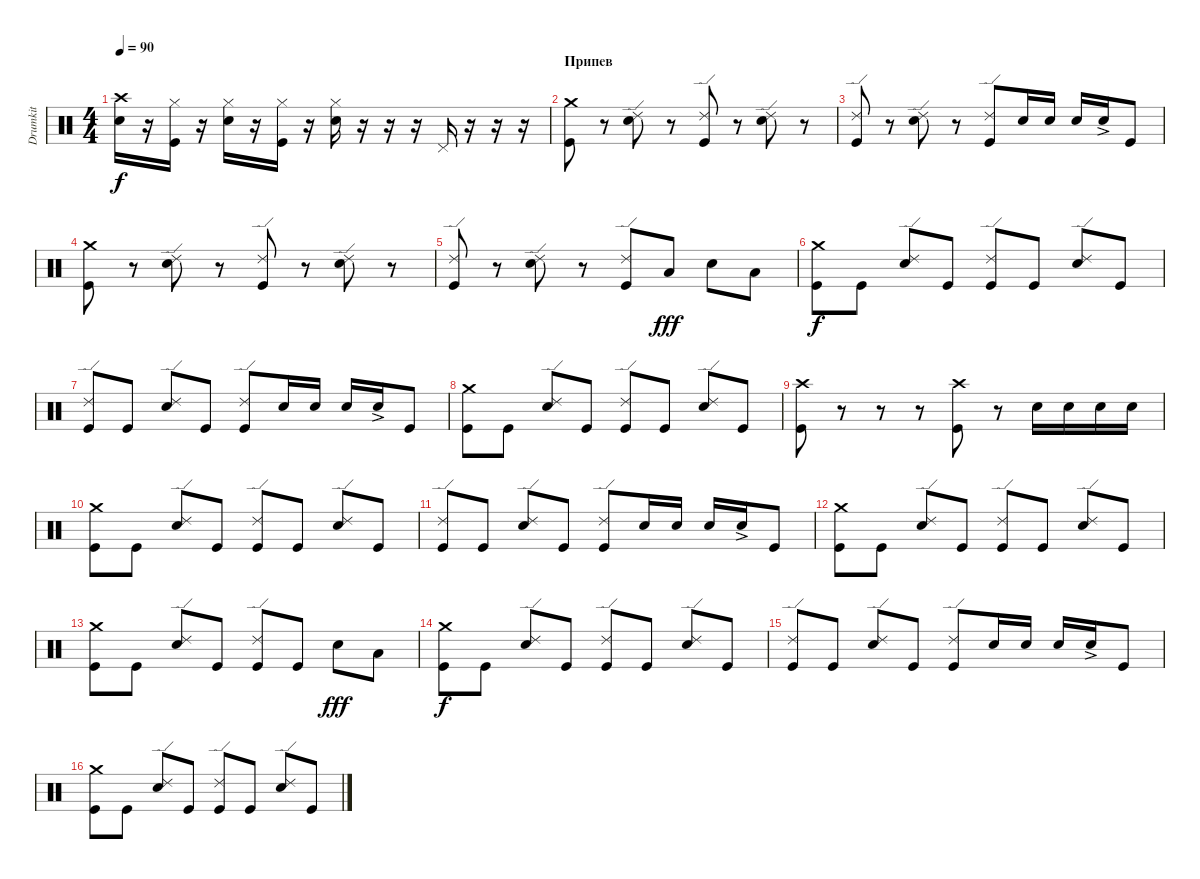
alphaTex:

\track ("Drumkit" "Drumkit") {instrument percussion}
\staff {score}
\articulation defaults
\ts (4 4)
\tempo 90
\clef neutral
\ks c
("Crash high (hit)" "Snare (hit) 2").16{dy f} r.16 ("Hi-Hat (closed)" "Kick (hit)").16 r.16 ("Hi-Hat (closed)" "Snare (hit) 2").16 r.16 ("Hi-Hat (closed)" "Kick (hit)").16 r.16 ("Hi-Hat (closed)" "Snare (hit) 2").16 r.16 r.16 r.16 "Pedal Hi-Hat (hit)".16 r.16 r.16 r.16 |
\section ("" "Припев")
("Kick (hit)" "Crash medium (hit)").8 r.8 ("Snare (hit) 2" "Ride (edge) 2").8 r.8 ("Kick (hit)" "Ride (edge) 2").8 r.8 ("Snare (hit) 2" "Ride (edge) 2").8 r.8 |
("Kick (hit)" "Ride (edge) 2").8 r.8 ("Snare (hit) 2" "Ride (edge) 2").8 r.8 ("Kick (hit)" "Ride (edge) 2").8 "Snare (hit) 2".16 "Snare (hit) 2".16 "Snare (hit) 2".16 "Snare (hit) 2"{ac}.16 "Kick (hit)".8 |
("Kick (hit)" "Crash medium (hit)").8 r.8 ("Snare (hit) 2" "Ride (edge) 2").8 r.8 ("Kick (hit)" "Ride (edge) 2").8 r.8 ("Snare (hit) 2" "Ride (edge) 2").8 r.8 |
("Kick (hit)" "Ride (edge) 2").8 r.8 ("Snare (hit) 2" "Ride (edge) 2").8 r.8 ("Kick (hit)" "Ride (edge) 2").8 "Low Tom (hit)".8{dy fff} "Snare (hit) 2".8 "Low Tom (hit)".8 |
("Kick (hit)" "Crash medium (hit)").8{dy f} "Kick (hit)".8 ("Snare (hit) 2" "Ride (edge) 2").8 "Kick (hit)".8 ("Kick (hit)" "Ride (edge) 2").8 "Kick (hit)".8 ("Snare (hit) 2" "Ride (edge) 2").8 "Kick (hit)".8 |
("Kick (hit)" "Ride (edge) 2").8 "Kick (hit)".8 ("Snare (hit) 2" "Ride (edge) 2").8 "Kick (hit)".8 ("Kick (hit)" "Ride (edge) 2").8 "Snare (hit) 2".16 "Snare (hit) 2".16 "Snare (hit) 2".16 "Snare (hit) 2"{ac}.16 "Kick (hit)".8 |
("Kick (hit)" "Crash medium (hit)").8 "Kick (hit)".8 ("Snare (hit) 2" "Ride (edge) 2").8 "Kick (hit)".8 ("Kick (hit)" "Ride (edge) 2").8 "Kick (hit)".8 ("Snare (hit) 2" "Ride (edge) 2").8 "Kick (hit)".8 |
("Kick (hit)" "Crash high (hit)").8 r.8 r.8 r.8 ("Kick (hit)" "Crash high (hit)").8 r.8 "Snare (hit) 2".16 "Snare (hit) 2".16 "Snare (hit) 2".16 "Snare (hit) 2".16 |
("Kick (hit)" "Crash medium (hit)").8 "Kick (hit)".8 ("Snare (hit) 2" "Ride (edge) 2").8 "Kick (hit)".8 ("Kick (hit)" "Ride (edge) 2").8 "Kick (hit)".8 ("Snare (hit) 2" "Ride (edge) 2").8 "Kick (hit)".8 |
("Kick (hit)" "Ride (edge) 2").8 "Kick (hit)".8 ("Snare (hit) 2" "Ride (edge) 2").8 "Kick (hit)".8 ("Kick (hit)" "Ride (edge) 2").8 "Snare (hit) 2".16 "Snare (hit) 2".16 "Snare (hit) 2".16 "Snare (hit) 2"{ac}.16 "Kick (hit)".8 |
("Kick (hit)" "Crash medium (hit)").8 "Kick (hit)".8 ("Snare (hit) 2" "Ride (edge) 2").8 "Kick (hit)".8 ("Kick (hit)" "Ride (edge) 2").8 "Kick (hit)".8 ("Snare (hit) 2" "Ride (edge) 2").8 "Kick (hit)".8 |
("Kick (hit)" "Crash medium (hit)").8 "Kick (hit)".8 ("Snare (hit) 2" "Ride (edge) 2").8 "Kick (hit)".8 ("Kick (hit)" "Ride (edge) 2").8 "Kick (hit)".8 "Snare (hit) 2".8{dy fff} "Low Tom (hit)".8 |
("Kick (hit)" "Crash medium (hit)").8{dy f} "Kick (hit)".8 ("Snare (hit) 2" "Ride (edge) 2").8 "Kick (hit)".8 ("Kick (hit)" "Ride (edge) 2").8 "Kick (hit)".8 ("Snare (hit) 2" "Ride (edge) 2").8 "Kick (hit)".8 |
("Kick (hit)" "Ride (edge) 2").8 "Kick (hit)".8 ("Snare (hit) 2" "Ride (edge) 2").8 "Kick (hit)".8 ("Kick (hit)" "Ride (edge) 2").8 "Snare (hit) 2".16 "Snare (hit) 2".16 "Snare (hit) 2".16 "Snare (hit) 2"{ac}.16 "Kick (hit)".8 |
("Kick (hit)" "Crash medium (hit)").8 "Kick (hit)".8 ("Snare (hit) 2" "Ride (edge) 2").8 "Kick (hit)".8 ("Kick (hit)" "Ride (edge) 2").8 "Kick (hit)".8 ("Snare (hit) 2" "Ride (edge) 2").8 "Kick (hit)".8
